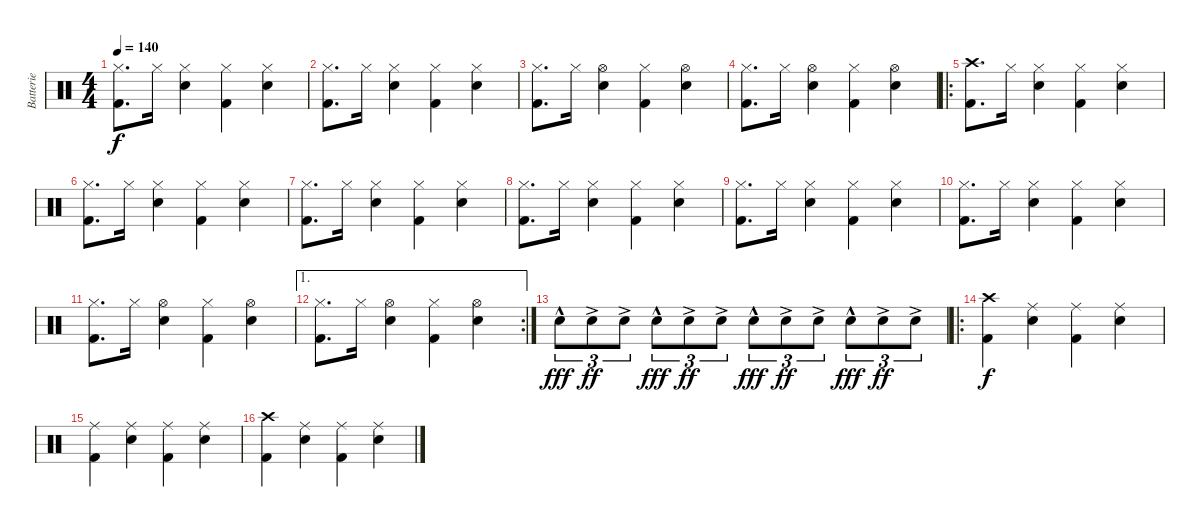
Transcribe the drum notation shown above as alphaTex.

\track ("Batterie" "Batterie") {instrument percussion}
\staff {score}
\articulation defaults
\ts (4 4)
\tempo 140
\clef neutral
\ks c
("Hi-Hat (closed)" "Kick (hit) 2").8{d dy f} "Hi-Hat (closed)".16 ("Hi-Hat (closed)" "Electric Snare (hit)").4 ("Hi-Hat (closed)" "Kick (hit) 2").4 ("Hi-Hat (closed)" "Electric Snare (hit)").4 |
("Hi-Hat (closed)" "Kick (hit) 2").8{d} "Hi-Hat (closed)".16 ("Hi-Hat (closed)" "Electric Snare (hit)").4 ("Hi-Hat (closed)" "Kick (hit) 2").4 ("Hi-Hat (closed)" "Electric Snare (hit)").4 |
("Hi-Hat (closed)" "Kick (hit) 2").8{d} "Hi-Hat (closed)".16 ("Hi-Hat (open)" "Electric Snare (hit)").4 ("Hi-Hat (closed)" "Kick (hit) 2").4 ("Hi-Hat (open)" "Electric Snare (hit)").4 |
("Hi-Hat (closed)" "Kick (hit) 2").8{d} "Hi-Hat (closed)".16 ("Hi-Hat (open)" "Electric Snare (hit)").4 ("Hi-Hat (closed)" "Kick (hit) 2").4 ("Hi-Hat (open)" "Electric Snare (hit)").4 |
\ro
("Crash high (hit)" "Kick (hit) 2").8{d} "Hi-Hat (closed)".16 ("Hi-Hat (closed)" "Electric Snare (hit)").4 ("Hi-Hat (closed)" "Kick (hit) 2").4 ("Hi-Hat (closed)" "Electric Snare (hit)").4 |
("Hi-Hat (closed)" "Kick (hit) 2").8{d} "Hi-Hat (closed)".16 ("Hi-Hat (closed)" "Electric Snare (hit)").4 ("Hi-Hat (closed)" "Kick (hit) 2").4 ("Hi-Hat (closed)" "Electric Snare (hit)").4 |
("Hi-Hat (closed)" "Kick (hit) 2").8{d} "Hi-Hat (closed)".16 ("Hi-Hat (closed)" "Electric Snare (hit)").4 ("Hi-Hat (closed)" "Kick (hit) 2").4 ("Hi-Hat (closed)" "Electric Snare (hit)").4 |
("Hi-Hat (closed)" "Kick (hit) 2").8{d} "Hi-Hat (closed)".16 ("Hi-Hat (closed)" "Electric Snare (hit)").4 ("Hi-Hat (closed)" "Kick (hit) 2").4 ("Hi-Hat (closed)" "Electric Snare (hit)").4 |
("Hi-Hat (closed)" "Kick (hit) 2").8{d} "Hi-Hat (closed)".16 ("Hi-Hat (closed)" "Electric Snare (hit)").4 ("Hi-Hat (closed)" "Kick (hit) 2").4 ("Hi-Hat (closed)" "Electric Snare (hit)").4 |
("Hi-Hat (closed)" "Kick (hit) 2").8{d} "Hi-Hat (closed)".16 ("Hi-Hat (closed)" "Electric Snare (hit)").4 ("Hi-Hat (closed)" "Kick (hit) 2").4 ("Hi-Hat (closed)" "Electric Snare (hit)").4 |
("Hi-Hat (closed)" "Kick (hit) 2").8{d} "Hi-Hat (closed)".16 ("Hi-Hat (open)" "Electric Snare (hit)").4 ("Hi-Hat (closed)" "Kick (hit) 2").4 ("Hi-Hat (open)" "Electric Snare (hit)").4 |
\ae 1
\rc 2
("Hi-Hat (closed)" "Kick (hit) 2").8{d} "Hi-Hat (closed)".16 ("Hi-Hat (open)" "Electric Snare (hit)").4 ("Hi-Hat (closed)" "Kick (hit) 2").4 ("Hi-Hat (open)" "Electric Snare (hit)").4 |
"Electric Snare (hit)"{hac}.8{tu (3 2) dy fff} "Electric Snare (hit)"{ac}.8{tu (3 2) dy ff} "Electric Snare (hit)"{ac}.8{tu (3 2)} "Electric Snare (hit)"{hac}.8{tu (3 2) dy fff} "Electric Snare (hit)"{ac}.8{tu (3 2) dy ff} "Electric Snare (hit)"{ac}.8{tu (3 2)} "Electric Snare (hit)"{hac}.8{tu (3 2) dy fff} "Electric Snare (hit)"{ac}.8{tu (3 2) dy ff} "Electric Snare (hit)"{ac}.8{tu (3 2)} "Electric Snare (hit)"{hac}.8{tu (3 2) dy fff} "Electric Snare (hit)"{ac}.8{tu (3 2) dy ff} "Electric Snare (hit)"{ac}.8{tu (3 2)} |
\ro
("Crash high (hit)" "Kick (hit) 2").4{dy f} ("Ride (middle)" "Electric Snare (hit)").4 ("Ride (middle)" "Kick (hit) 2").4 ("Ride (middle)" "Electric Snare (hit)").4 |
("Ride (middle)" "Kick (hit) 2").4 ("Ride (middle)" "Electric Snare (hit)").4 ("Ride (middle)" "Kick (hit) 2").4 ("Ride (middle)" "Electric Snare (hit)").4 |
("Crash high (hit)" "Kick (hit) 2").4 ("Ride (middle)" "Electric Snare (hit)").4 ("Ride (middle)" "Kick (hit) 2").4 ("Ride (middle)" "Electric Snare (hit)").4
